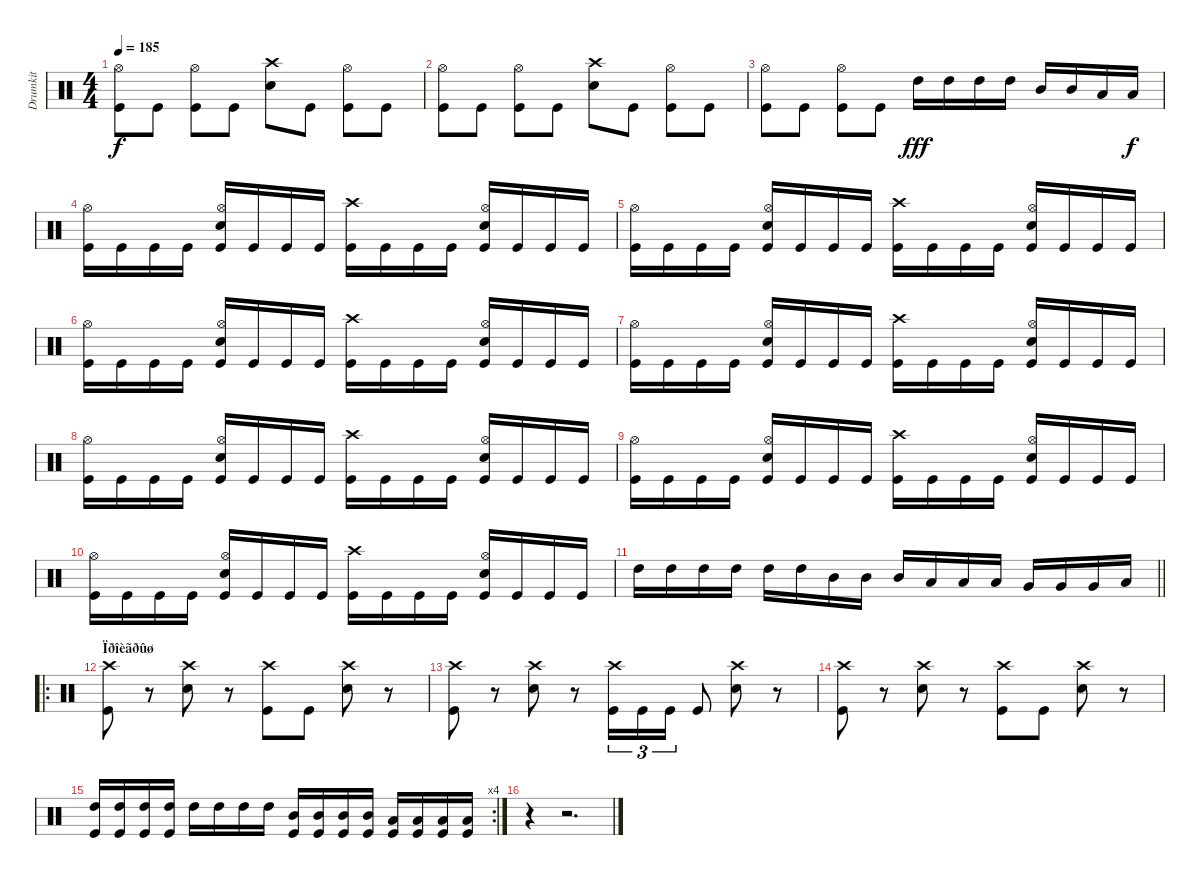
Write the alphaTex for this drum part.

\track ("Drumkit" "Drumkit") {instrument percussion}
\staff {score}
\articulation defaults
\ts (4 4)
\tempo 185
\clef neutral
\ks c
("Kick (hit)" "Hi-Hat (open)").8{dy f} "Kick (hit)".8 ("Kick (hit)" "Hi-Hat (open)").8 "Kick (hit)".8 ("Snare (hit) 2" "Crash high (hit)").8 "Kick (hit)".8 ("Kick (hit)" "Hi-Hat (open)").8 "Kick (hit)".8 |
("Kick (hit)" "Hi-Hat (open)").8 "Kick (hit)".8 ("Kick (hit)" "Hi-Hat (open)").8 "Kick (hit)".8 ("Snare (hit) 2" "Crash high (hit)").8 "Kick (hit)".8 ("Kick (hit)" "Hi-Hat (open)").8 "Kick (hit)".8 |
("Kick (hit)" "Hi-Hat (open)").8 "Kick (hit)".8 ("Kick (hit)" "Hi-Hat (open)").8 "Kick (hit)".8 "High Tom (hit)".16{dy fff} "High Tom (hit)".16 "High Tom (hit)".16 "High Tom (hit)".16 "Mid Tom (hit)".16 "Mid Tom (hit)".16 "Low Tom (hit)".16 "Low Tom (hit)".16{dy f} |
("Kick (hit)" "Hi-Hat (open)").16 "Kick (hit)".16 "Kick (hit)".16 "Kick (hit)".16 ("Kick (hit)" "Hi-Hat (open)" "Snare (hit) 2").16 "Kick (hit)".16 "Kick (hit)".16 "Kick (hit)".16 ("Kick (hit)" "Crash high (hit)").16 "Kick (hit)".16 "Kick (hit)".16 "Kick (hit)".16 ("Kick (hit)" "Hi-Hat (open)" "Snare (hit) 2").16 "Kick (hit)".16 "Kick (hit)".16 "Kick (hit)".16 |
("Kick (hit)" "Hi-Hat (open)").16 "Kick (hit)".16 "Kick (hit)".16 "Kick (hit)".16 ("Kick (hit)" "Hi-Hat (open)" "Snare (hit) 2").16 "Kick (hit)".16 "Kick (hit)".16 "Kick (hit)".16 ("Kick (hit)" "Crash high (hit)").16 "Kick (hit)".16 "Kick (hit)".16 "Kick (hit)".16 ("Kick (hit)" "Hi-Hat (open)" "Snare (hit) 2").16 "Kick (hit)".16 "Kick (hit)".16 "Kick (hit)".16 |
("Kick (hit)" "Hi-Hat (open)").16 "Kick (hit)".16 "Kick (hit)".16 "Kick (hit)".16 ("Kick (hit)" "Hi-Hat (open)" "Snare (hit) 2").16 "Kick (hit)".16 "Kick (hit)".16 "Kick (hit)".16 ("Kick (hit)" "Crash high (hit)").16 "Kick (hit)".16 "Kick (hit)".16 "Kick (hit)".16 ("Kick (hit)" "Hi-Hat (open)" "Snare (hit) 2").16 "Kick (hit)".16 "Kick (hit)".16 "Kick (hit)".16 |
("Kick (hit)" "Hi-Hat (open)").16 "Kick (hit)".16 "Kick (hit)".16 "Kick (hit)".16 ("Kick (hit)" "Hi-Hat (open)" "Snare (hit) 2").16 "Kick (hit)".16 "Kick (hit)".16 "Kick (hit)".16 ("Kick (hit)" "Crash high (hit)").16 "Kick (hit)".16 "Kick (hit)".16 "Kick (hit)".16 ("Kick (hit)" "Hi-Hat (open)" "Snare (hit) 2").16 "Kick (hit)".16 "Kick (hit)".16 "Kick (hit)".16 |
("Kick (hit)" "Hi-Hat (open)").16 "Kick (hit)".16 "Kick (hit)".16 "Kick (hit)".16 ("Kick (hit)" "Hi-Hat (open)" "Snare (hit) 2").16 "Kick (hit)".16 "Kick (hit)".16 "Kick (hit)".16 ("Kick (hit)" "Crash high (hit)").16 "Kick (hit)".16 "Kick (hit)".16 "Kick (hit)".16 ("Kick (hit)" "Hi-Hat (open)" "Snare (hit) 2").16 "Kick (hit)".16 "Kick (hit)".16 "Kick (hit)".16 |
("Kick (hit)" "Hi-Hat (open)").16 "Kick (hit)".16 "Kick (hit)".16 "Kick (hit)".16 ("Kick (hit)" "Hi-Hat (open)" "Snare (hit) 2").16 "Kick (hit)".16 "Kick (hit)".16 "Kick (hit)".16 ("Kick (hit)" "Crash high (hit)").16 "Kick (hit)".16 "Kick (hit)".16 "Kick (hit)".16 ("Kick (hit)" "Hi-Hat (open)" "Snare (hit) 2").16 "Kick (hit)".16 "Kick (hit)".16 "Kick (hit)".16 |
("Kick (hit)" "Hi-Hat (open)").16 "Kick (hit)".16 "Kick (hit)".16 "Kick (hit)".16 ("Kick (hit)" "Hi-Hat (open)" "Snare (hit) 2").16 "Kick (hit)".16 "Kick (hit)".16 "Kick (hit)".16 ("Kick (hit)" "Crash high (hit)").16 "Kick (hit)".16 "Kick (hit)".16 "Kick (hit)".16 ("Kick (hit)" "Hi-Hat (open)" "Snare (hit) 2").16 "Kick (hit)".16 "Kick (hit)".16 "Kick (hit)".16 |
\barLineRight lightlight "High Tom (hit)".16 "High Tom (hit)".16 "High Tom (hit)".16 "High Tom (hit)".16 "High Tom (hit)".16 "High Tom (hit)".16 "Mid Tom (hit)".16 "Mid Tom (hit)".16 "Mid Tom (hit)".16 "Low Tom (hit)".16 "Low Tom (hit)".16 "Low Tom (hit)".16 "Very Low Tom (hit)".16 "Very Low Tom (hit)".16 "Very Low Tom (hit)".16 "Low Floor Tom (hit)".16
|
\ro
\section ("" "Ïðîèãðûø")
("Kick (hit)" "Crash high (hit)").8 r.8 ("Snare (hit) 2" "Crash high (hit)").8 r.8 ("Kick (hit)" "Crash high (hit)").8 "Kick (hit)".8 ("Snare (hit) 2" "Crash high (hit)").8 r.8 |
("Kick (hit)" "Crash high (hit)").8 r.8 ("Snare (hit) 2" "Crash high (hit)").8 r.8 ("Kick (hit)" "Crash high (hit)").16{tu (3 2)} "Kick (hit)".16{tu (3 2)} "Kick (hit)".16{tu (3 2)} "Kick (hit)".8 ("Snare (hit) 2" "Crash high (hit)").8 r.8 |
("Kick (hit)" "Crash high (hit)").8 r.8 ("Snare (hit) 2" "Crash high (hit)").8 r.8 ("Kick (hit)" "Crash high (hit)").8 "Kick (hit)".8 ("Snare (hit) 2" "Crash high (hit)").8 r.8 |
\rc 4
("High Tom (hit)" "Kick (hit)").16 ("High Tom (hit)" "Kick (hit)").16 ("High Tom (hit)" "Kick (hit)").16 ("High Tom (hit)" "Kick (hit)").16 "High Tom (hit)".16 "High Tom (hit)".16 "High Tom (hit)".16 "High Tom (hit)".16 ("Mid Tom (hit)" "Kick (hit)").16 ("Mid Tom (hit)" "Kick (hit)").16 ("Mid Tom (hit)" "Kick (hit)").16 ("Mid Tom (hit)" "Kick (hit)").16 ("Low Tom (hit)" "Kick (hit)").16 ("Low Tom (hit)" "Kick (hit)").16 ("Low Tom (hit)" "Kick (hit)").16 ("Low Tom (hit)" "Kick (hit)").16 |
r.4 r.2{d}
